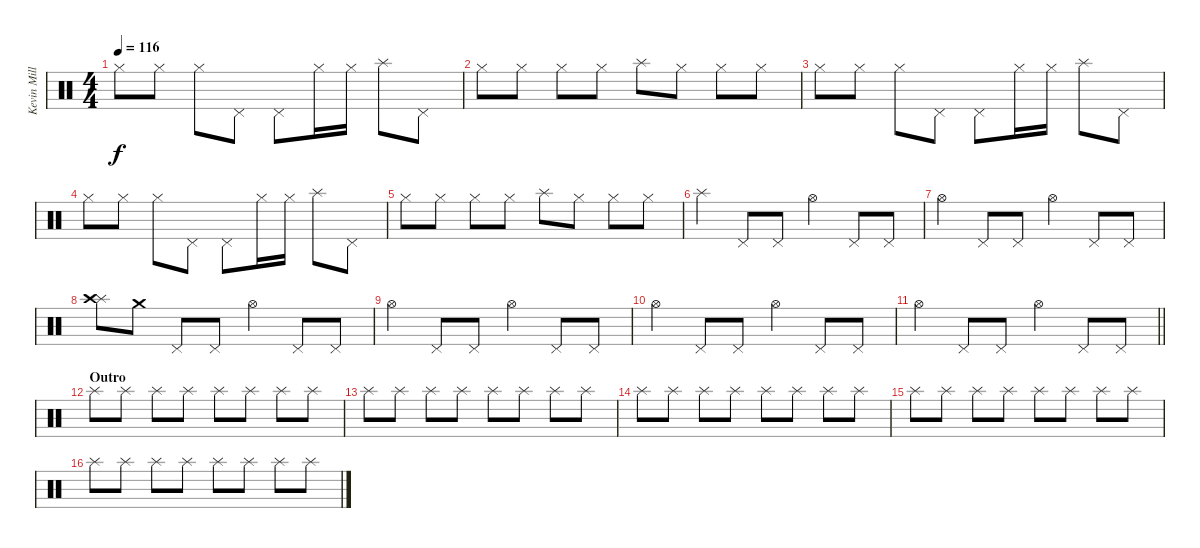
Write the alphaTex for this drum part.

\track ("Kevin Miller (Drums)" "Kevin Mill") {instrument percussion}
\staff {score}
\articulation defaults
\ts (4 4)
\tempo 116
\clef neutral
\ks c "Hi-Hat (closed)".8{dy f} "Hi-Hat (closed)".8 "Hi-Hat (closed)".8 "Pedal Hi-Hat (hit)".8 "Pedal Hi-Hat (hit)".8 "Hi-Hat (closed)".16 "Hi-Hat (closed)".16 "Splash (hit)".8 "Pedal Hi-Hat (hit)".8
|
"Hi-Hat (closed)".8 "Hi-Hat (closed)".8 "Hi-Hat (closed)".8 "Hi-Hat (closed)".8 "Splash (hit)".8 "Hi-Hat (closed)".8 "Hi-Hat (closed)".8 "Hi-Hat (closed)".8 |
"Hi-Hat (closed)".8 "Hi-Hat (closed)".8 "Hi-Hat (closed)".8 "Pedal Hi-Hat (hit)".8 "Pedal Hi-Hat (hit)".8 "Hi-Hat (closed)".16 "Hi-Hat (closed)".16 "Splash (hit)".8 "Pedal Hi-Hat (hit)".8 |
"Hi-Hat (closed)".8 "Hi-Hat (closed)".8 "Hi-Hat (closed)".8 "Pedal Hi-Hat (hit)".8 "Pedal Hi-Hat (hit)".8 "Hi-Hat (closed)".16 "Hi-Hat (closed)".16 "Splash (hit)".8 "Pedal Hi-Hat (hit)".8 |
"Hi-Hat (closed)".8 "Hi-Hat (closed)".8 "Hi-Hat (closed)".8 "Hi-Hat (closed)".8 "Splash (hit)".8 "Hi-Hat (closed)".8 "Hi-Hat (closed)".8 "Hi-Hat (closed)".8 |
"Splash (hit)".4 "Pedal Hi-Hat (hit)".8 "Pedal Hi-Hat (hit)".8 "Hi-Hat (open)".4 "Pedal Hi-Hat (hit)".8 "Pedal Hi-Hat (hit)".8 |
"Hi-Hat (open)".4 "Pedal Hi-Hat (hit)".8 "Pedal Hi-Hat (hit)".8 "Hi-Hat (open)".4 "Pedal Hi-Hat (hit)".8 "Pedal Hi-Hat (hit)".8 |
("Splash (hit)" "Crash high (hit)").8 "Crash medium (hit)".8 "Pedal Hi-Hat (hit)".8 "Pedal Hi-Hat (hit)".8 "Hi-Hat (open)".4 "Pedal Hi-Hat (hit)".8 "Pedal Hi-Hat (hit)".8 |
"Hi-Hat (open)".4 "Pedal Hi-Hat (hit)".8 "Pedal Hi-Hat (hit)".8 "Hi-Hat (open)".4 "Pedal Hi-Hat (hit)".8 "Pedal Hi-Hat (hit)".8 |
"Hi-Hat (open)".4 "Pedal Hi-Hat (hit)".8 "Pedal Hi-Hat (hit)".8 "Hi-Hat (open)".4 "Pedal Hi-Hat (hit)".8 "Pedal Hi-Hat (hit)".8 |
\barLineRight lightlight "Hi-Hat (open)".4 "Pedal Hi-Hat (hit)".8 "Pedal Hi-Hat (hit)".8 "Hi-Hat (open)".4 "Pedal Hi-Hat (hit)".8 "Pedal Hi-Hat (hit)".8
|
\section ("" "Outro")
"Splash (hit)".8 "Splash (hit)".8 "Splash (hit)".8 "Splash (hit)".8 "Splash (hit)".8 "Splash (hit)".8 "Splash (hit)".8 "Splash (hit)".8 |
"Splash (hit)".8 "Splash (hit)".8 "Splash (hit)".8 "Splash (hit)".8 "Splash (hit)".8 "Splash (hit)".8 "Splash (hit)".8 "Splash (hit)".8 |
"Splash (hit)".8 "Splash (hit)".8 "Splash (hit)".8 "Splash (hit)".8 "Splash (hit)".8 "Splash (hit)".8 "Splash (hit)".8 "Splash (hit)".8 |
"Splash (hit)".8 "Splash (hit)".8 "Splash (hit)".8 "Splash (hit)".8 "Splash (hit)".8 "Splash (hit)".8 "Splash (hit)".8 "Splash (hit)".8 |
"Splash (hit)".8 "Splash (hit)".8 "Splash (hit)".8 "Splash (hit)".8 "Splash (hit)".8 "Splash (hit)".8 "Splash (hit)".8 "Splash (hit)".8
